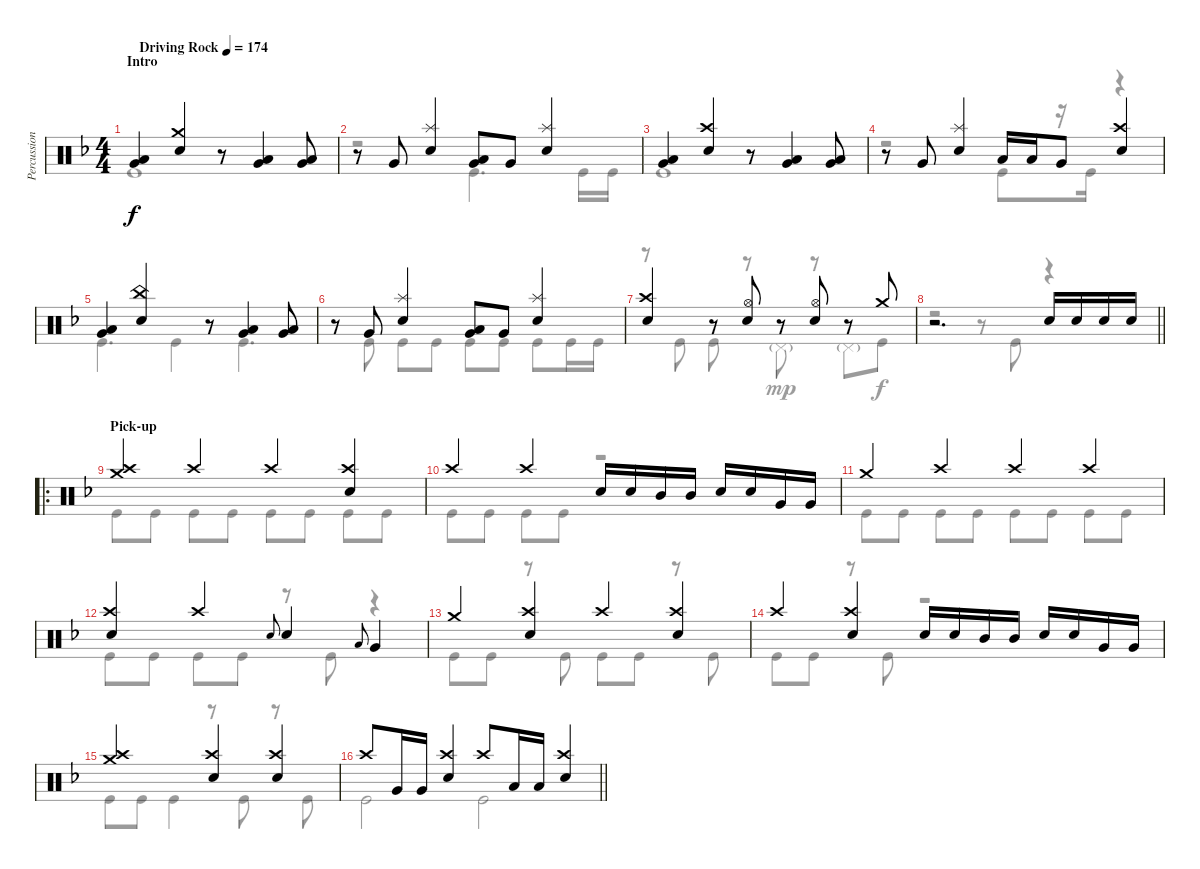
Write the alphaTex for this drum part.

\track ("Percussion" "Percussion") {instrument percussion}
\staff {score}
\articulation defaults
\voice
\ts (4 4)
\section ("" "Intro")
\tempo (174 "Driving Rock")
\clef neutral
\ks dminor
("Low Tom (hit)" "Very Low Tom (hit)").4{dy f} ("Crash medium (hit)" "Electric Snare (hit)").4 r.8 ("Low Tom (hit)" "Very Low Tom (hit)").4 ("Low Tom (hit)" "Very Low Tom (hit)").8 |
r.8 "Very Low Tom (hit)".8 ("Splash (hit)" "Electric Snare (hit)").4 ("Low Tom (hit)" "Very Low Tom (hit)").8 "Very Low Tom (hit)".8 ("Splash (hit)" "Electric Snare (hit)").4 |
("Low Tom (hit)" "Very Low Tom (hit)").4 ("Crash high (hit)" "Electric Snare (hit)").4 r.8 ("Low Tom (hit)" "Very Low Tom (hit)").4 ("Low Tom (hit)" "Very Low Tom (hit)").8 |
r.8 "Very Low Tom (hit)".8 ("Splash (hit)" "Electric Snare (hit)").4 "Low Tom (hit)".16 "Low Tom (hit)".16 "Very Low Tom (hit)".8 ("Crash high (hit)" "Electric Snare (hit)").4 |
("Low Tom (hit)" "Very Low Tom (hit)").4 ("China (hit)" "Electric Snare (hit)").4 r.8 ("Low Tom (hit)" "Very Low Tom (hit)").4 ("Low Tom (hit)" "Very Low Tom (hit)").8 |
r.8 "Very Low Tom (hit)".8 ("Splash (hit)" "Electric Snare (hit)").4 ("Low Tom (hit)" "Very Low Tom (hit)").8 "Very Low Tom (hit)".8 ("Splash (hit)" "Electric Snare (hit)").4 |
("Crash high (hit)" "Electric Snare (hit)").4 r.8 ("Hi-Hat (open)" "Electric Snare (hit)").8 r.8 ("Hi-Hat (open)" "Electric Snare (hit)").8 r.8 "Crash medium (hit)".8 |
\barLineRight lightlight
r.2{d} "Electric Snare (hit)".16 "Electric Snare (hit)".16 "Electric Snare (hit)".16 "Electric Snare (hit)".16 |
\ro
\section ("" "Pick-up")
("Crash medium (hit)" "Crash high (hit)").4 "Crash high (hit)".4 "Crash high (hit)".4 ("Crash high (hit)" "Electric Snare (hit)").4 |
"Crash high (hit)".4 "Crash high (hit)".4 "Electric Snare (hit)".16 "Electric Snare (hit)".16 "Mid Tom (hit)".16 "Mid Tom (hit)".16 "Electric Snare (hit)".16 "Electric Snare (hit)".16 "Very Low Tom (hit)".16 "Very Low Tom (hit)".16 |
"Crash medium (hit)".4 "Crash high (hit)".4 "Crash high (hit)".4 "Crash high (hit)".4 |
("Crash high (hit)" "Electric Snare (hit)").4 "Crash high (hit)".4 "Electric Snare (hit)".8{gr onbeat} "Electric Snare (hit)".4 "Low Tom (hit)".8{gr onbeat} "Very Low Tom (hit)".4 |
"Crash medium (hit)".4 ("Crash high (hit)" "Electric Snare (hit)").4 "Crash high (hit)".4 ("Crash high (hit)" "Electric Snare (hit)").4 |
"Crash high (hit)".4 ("Crash high (hit)" "Electric Snare (hit)").4 "Electric Snare (hit)".16 "Electric Snare (hit)".16 "Mid Tom (hit)".16 "Mid Tom (hit)".16 "Electric Snare (hit)".16 "Electric Snare (hit)".16 "Very Low Tom (hit)".16 "Very Low Tom (hit)".16 |
("Crash medium (hit)" "Crash high (hit)").2 ("Crash high (hit)" "Electric Snare (hit)").4 ("Crash high (hit)" "Electric Snare (hit)").4 |
\barLineRight lightlight "Crash high (hit)".8 "Very Low Tom (hit)".16 "Very Low Tom (hit)".16
("Crash high (hit)" "Electric Snare (hit)").4 "Crash high (hit)".8 "Low Tom (hit)".16 "Low Tom (hit)".16 ("Crash high (hit)" "Electric Snare (hit)").4
\voice
\clef neutral
\ottava regular
\simile none
\ks dminor "Kick (hit)".1{dy f}
|
r.2 "Kick (hit)".4{d} "Kick (hit)".16 "Kick (hit)".16 |
"Kick (hit)".1 |
r.2 "Kick (hit)".8 r.16 "Kick (hit)".16 r.4 |
"Kick (hit)".4{d} "Kick (hit)".4 "Kick (hit)".4{d} |
r.8 "Kick (hit)".8 "Kick (hit)".8 "Kick (hit)".8 "Kick (hit)".8 "Kick (hit)".8 "Kick (hit)".8 "Kick (hit)".16 "Kick (hit)".16 |
r.8 "Kick (hit)".8 "Kick (hit)".8 r.8 "Pedal Hi-Hat (hit)"{g}.8{dy mp} r.8 "Pedal Hi-Hat (hit)"{g}.8 "Kick (hit)".8{dy f} |
\barLineRight lightlight
r.2 r.8 "Kick (hit)".8 r.4 |
"Kick (hit)".8 "Kick (hit)".8 "Kick (hit)".8 "Kick (hit)".8 "Kick (hit)".8 "Kick (hit)".8 "Kick (hit)".8 "Kick (hit)".8 |
"Kick (hit)".8 "Kick (hit)".8 "Kick (hit)".8 "Kick (hit)".8 r.2 |
"Kick (hit)".8 "Kick (hit)".8 "Kick (hit)".8 "Kick (hit)".8 "Kick (hit)".8 "Kick (hit)".8 "Kick (hit)".8 "Kick (hit)".8 |
"Kick (hit)".8 "Kick (hit)".8 "Kick (hit)".8 "Kick (hit)".8 r.8 "Kick (hit)".8 r.4 |
"Kick (hit)".8 "Kick (hit)".8 r.8 "Kick (hit)".8 "Kick (hit)".8 "Kick (hit)".8 r.8 "Kick (hit)".8 |
"Kick (hit)".8 "Kick (hit)".8 r.8 "Kick (hit)".8 r.2 |
"Kick (hit)".8 "Kick (hit)".8 "Kick (hit)".4 r.8 "Kick (hit)".8 r.8 "Kick (hit)".8 |
\barLineRight lightlight "Kick (hit)".2 "Kick (hit)".2
